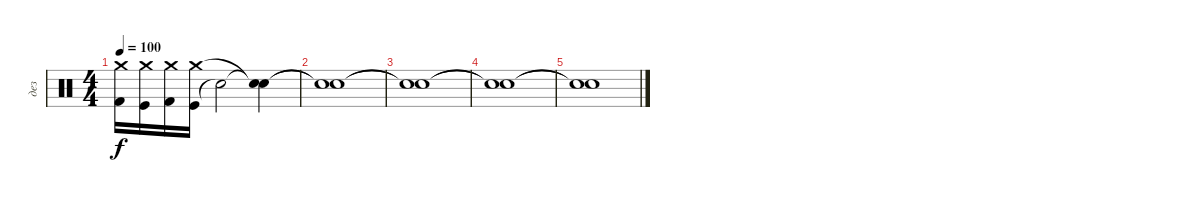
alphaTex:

\track ("дез" "дез") {instrument percussion}
\staff {score}
\articulation defaults
\ts (4 4)
\tempo 100
\clef neutral
\ks c
("Kick (hit) 2" "Crash medium (hit)").16{dy f} ("Kick (hit)" "Crash medium (hit)").16 ("Kick (hit) 2" "Crash medium (hit)").16 ("Kick (hit)" "Crash medium (hit)").16 "Snare (hit)"{t}.2 ("Snare (hit)"{t} "Snare (hit)"{t}).4 |
("Snare (hit)"{t} "Snare (hit)"{t}).1 |
("Snare (hit)"{t} "Snare (hit)"{t}).1 |
("Snare (hit)"{t} "Snare (hit)"{t}).1 |
("Snare (hit)"{t} "Snare (hit)"{t}).1
